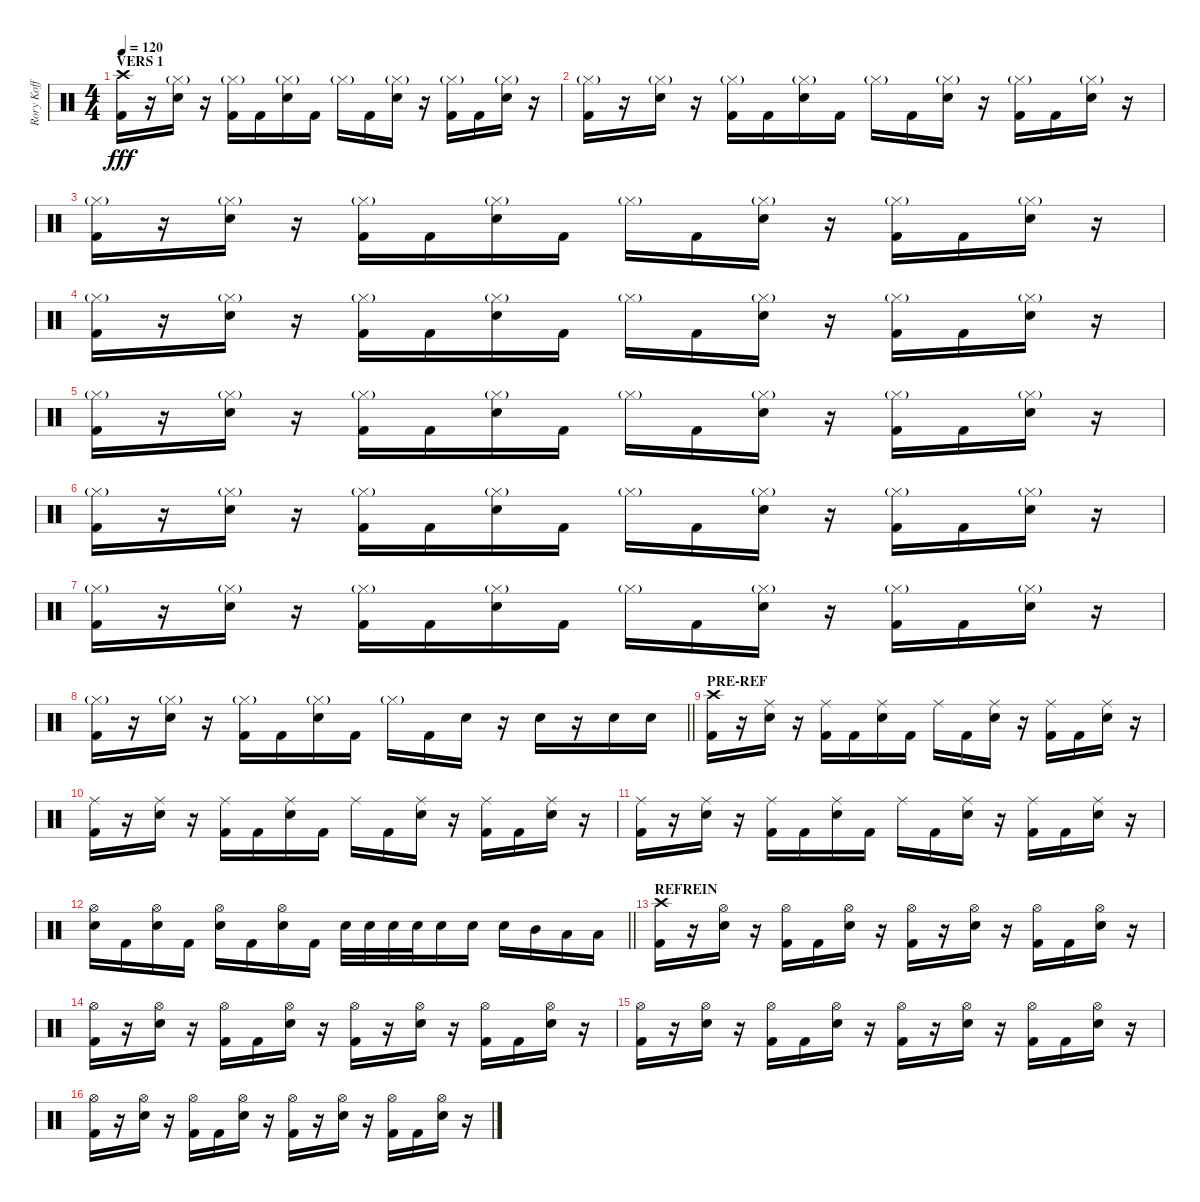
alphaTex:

\track ("Rory Koff" "Rory Koff") {instrument percussion}
\staff {score}
\articulation defaults
\ts (4 4)
\section ("" "VERS 1")
\tempo 120
\clef neutral
\ks c
("Crash high (hit)" "Kick (hit) 2").16{dy fff} r.16 ("Hi-Hat (closed)"{g} "Snare (hit) 2").16 r.16 ("Hi-Hat (closed)"{g} "Kick (hit) 2").16 "Kick (hit) 2".16 ("Hi-Hat (closed)"{g} "Snare (hit) 2").16 "Kick (hit) 2".16 "Hi-Hat (closed)"{g}.16 "Kick (hit) 2".16 ("Hi-Hat (closed)"{g} "Snare (hit) 2").16 r.16 ("Hi-Hat (closed)"{g} "Kick (hit) 2").16 "Kick (hit) 2".16 ("Hi-Hat (closed)"{g} "Snare (hit) 2").16 r.16 |
("Hi-Hat (closed)"{g} "Kick (hit) 2").16 r.16 ("Hi-Hat (closed)"{g} "Snare (hit) 2").16 r.16 ("Hi-Hat (closed)"{g} "Kick (hit) 2").16 "Kick (hit) 2".16 ("Hi-Hat (closed)"{g} "Snare (hit) 2").16 "Kick (hit) 2".16 "Hi-Hat (closed)"{g}.16 "Kick (hit) 2".16 ("Hi-Hat (closed)"{g} "Snare (hit) 2").16 r.16 ("Hi-Hat (closed)"{g} "Kick (hit) 2").16 "Kick (hit) 2".16 ("Hi-Hat (closed)"{g} "Snare (hit) 2").16 r.16 |
("Hi-Hat (closed)"{g} "Kick (hit) 2").16 r.16 ("Hi-Hat (closed)"{g} "Snare (hit) 2").16 r.16 ("Hi-Hat (closed)"{g} "Kick (hit) 2").16 "Kick (hit) 2".16 ("Hi-Hat (closed)"{g} "Snare (hit) 2").16 "Kick (hit) 2".16 "Hi-Hat (closed)"{g}.16 "Kick (hit) 2".16 ("Hi-Hat (closed)"{g} "Snare (hit) 2").16 r.16 ("Hi-Hat (closed)"{g} "Kick (hit) 2").16 "Kick (hit) 2".16 ("Hi-Hat (closed)"{g} "Snare (hit) 2").16 r.16 |
("Hi-Hat (closed)"{g} "Kick (hit) 2").16 r.16 ("Hi-Hat (closed)"{g} "Snare (hit) 2").16 r.16 ("Hi-Hat (closed)"{g} "Kick (hit) 2").16 "Kick (hit) 2".16 ("Hi-Hat (closed)"{g} "Snare (hit) 2").16 "Kick (hit) 2".16 "Hi-Hat (closed)"{g}.16 "Kick (hit) 2".16 ("Hi-Hat (closed)"{g} "Snare (hit) 2").16 r.16 ("Hi-Hat (closed)"{g} "Kick (hit) 2").16 "Kick (hit) 2".16 ("Hi-Hat (closed)"{g} "Snare (hit) 2").16 r.16 |
("Hi-Hat (closed)"{g} "Kick (hit) 2").16 r.16 ("Hi-Hat (closed)"{g} "Snare (hit) 2").16 r.16 ("Hi-Hat (closed)"{g} "Kick (hit) 2").16 "Kick (hit) 2".16 ("Hi-Hat (closed)"{g} "Snare (hit) 2").16 "Kick (hit) 2".16 "Hi-Hat (closed)"{g}.16 "Kick (hit) 2".16 ("Hi-Hat (closed)"{g} "Snare (hit) 2").16 r.16 ("Hi-Hat (closed)"{g} "Kick (hit) 2").16 "Kick (hit) 2".16 ("Hi-Hat (closed)"{g} "Snare (hit) 2").16 r.16 |
("Hi-Hat (closed)"{g} "Kick (hit) 2").16 r.16 ("Hi-Hat (closed)"{g} "Snare (hit) 2").16 r.16 ("Hi-Hat (closed)"{g} "Kick (hit) 2").16 "Kick (hit) 2".16 ("Hi-Hat (closed)"{g} "Snare (hit) 2").16 "Kick (hit) 2".16 "Hi-Hat (closed)"{g}.16 "Kick (hit) 2".16 ("Hi-Hat (closed)"{g} "Snare (hit) 2").16 r.16 ("Hi-Hat (closed)"{g} "Kick (hit) 2").16 "Kick (hit) 2".16 ("Hi-Hat (closed)"{g} "Snare (hit) 2").16 r.16 |
("Hi-Hat (closed)"{g} "Kick (hit) 2").16 r.16 ("Hi-Hat (closed)"{g} "Snare (hit) 2").16 r.16 ("Hi-Hat (closed)"{g} "Kick (hit) 2").16 "Kick (hit) 2".16 ("Hi-Hat (closed)"{g} "Snare (hit) 2").16 "Kick (hit) 2".16 "Hi-Hat (closed)"{g}.16 "Kick (hit) 2".16 ("Hi-Hat (closed)"{g} "Snare (hit) 2").16 r.16 ("Hi-Hat (closed)"{g} "Kick (hit) 2").16 "Kick (hit) 2".16 ("Hi-Hat (closed)"{g} "Snare (hit) 2").16 r.16 |
\barLineRight lightlight
("Hi-Hat (closed)"{g} "Kick (hit) 2").16 r.16 ("Hi-Hat (closed)"{g} "Snare (hit) 2").16 r.16 ("Hi-Hat (closed)"{g} "Kick (hit) 2").16 "Kick (hit) 2".16 ("Hi-Hat (closed)"{g} "Snare (hit) 2").16 "Kick (hit) 2".16 "Hi-Hat (closed)"{g}.16 "Kick (hit) 2".16 "Snare (hit) 2".16 r.16 "Snare (hit) 2".16 r.16 "Snare (hit) 2".16 "Snare (hit) 2".16 |
\section ("" "PRE-REF")
("Crash high (hit)" "Kick (hit) 2").16 r.16 ("Ride (middle)" "Snare (hit) 2").16 r.16 ("Ride (middle)" "Kick (hit) 2").16 "Kick (hit) 2".16 ("Ride (middle)" "Snare (hit) 2").16 "Kick (hit) 2".16 "Ride (middle)".16 "Kick (hit) 2".16 ("Ride (middle)" "Snare (hit) 2").16 r.16 ("Ride (middle)" "Kick (hit) 2").16 "Kick (hit) 2".16 ("Ride (middle)" "Snare (hit) 2").16 r.16 |
("Ride (middle)" "Kick (hit) 2").16 r.16 ("Ride (middle)" "Snare (hit) 2").16 r.16 ("Ride (middle)" "Kick (hit) 2").16 "Kick (hit) 2".16 ("Ride (middle)" "Snare (hit) 2").16 "Kick (hit) 2".16 "Ride (middle)".16 "Kick (hit) 2".16 ("Ride (middle)" "Snare (hit) 2").16 r.16 ("Ride (middle)" "Kick (hit) 2").16 "Kick (hit) 2".16 ("Ride (middle)" "Snare (hit) 2").16 r.16 |
("Ride (middle)" "Kick (hit) 2").16 r.16 ("Ride (middle)" "Snare (hit) 2").16 r.16 ("Ride (middle)" "Kick (hit) 2").16 "Kick (hit) 2".16 ("Ride (middle)" "Snare (hit) 2").16 "Kick (hit) 2".16 "Ride (middle)".16 "Kick (hit) 2".16 ("Ride (middle)" "Snare (hit) 2").16 r.16 ("Ride (middle)" "Kick (hit) 2").16 "Kick (hit) 2".16 ("Ride (middle)" "Snare (hit) 2").16 r.16 |
\barLineRight lightlight
("Hi-Hat (open)" "Snare (hit) 2").16 "Kick (hit) 2".16 ("Hi-Hat (open)" "Snare (hit) 2").16 "Kick (hit) 2".16 ("Hi-Hat (open)" "Snare (hit) 2").16 "Kick (hit) 2".16 ("Hi-Hat (open)" "Snare (hit) 2").16 "Kick (hit) 2".16 "Snare (hit) 2".32 "Snare (hit) 2".32 "Snare (hit) 2".32 "Snare (hit) 2".32 "Snare (hit) 2".16 "Snare (hit) 2".16 "Snare (hit) 2".16 "Mid Tom (hit)".16 "Low Tom (hit)".16 "Low Floor Tom (hit)".16 |
\section ("" "REFREIN")
("Crash high (hit)" "Kick (hit) 2").16 r.16 ("Hi-Hat (open)" "Snare (hit) 2").16 r.16 ("Hi-Hat (open)" "Kick (hit) 2").16 "Kick (hit) 2".16 ("Hi-Hat (open)" "Snare (hit) 2").16 r.16 ("Hi-Hat (open)" "Kick (hit) 2").16 r.16 ("Hi-Hat (open)" "Snare (hit) 2").16 r.16 ("Hi-Hat (open)" "Kick (hit) 2").16 "Kick (hit) 2".16 ("Hi-Hat (open)" "Snare (hit) 2").16 r.16 |
("Hi-Hat (open)" "Kick (hit) 2").16 r.16 ("Hi-Hat (open)" "Snare (hit) 2").16 r.16 ("Hi-Hat (open)" "Kick (hit) 2").16 "Kick (hit) 2".16 ("Hi-Hat (open)" "Snare (hit) 2").16 r.16 ("Hi-Hat (open)" "Kick (hit) 2").16 r.16 ("Hi-Hat (open)" "Snare (hit) 2").16 r.16 ("Hi-Hat (open)" "Kick (hit) 2").16 "Kick (hit) 2".16 ("Hi-Hat (open)" "Snare (hit) 2").16 r.16 |
("Hi-Hat (open)" "Kick (hit) 2").16 r.16 ("Hi-Hat (open)" "Snare (hit) 2").16 r.16 ("Hi-Hat (open)" "Kick (hit) 2").16 "Kick (hit) 2".16 ("Hi-Hat (open)" "Snare (hit) 2").16 r.16 ("Hi-Hat (open)" "Kick (hit) 2").16 r.16 ("Hi-Hat (open)" "Snare (hit) 2").16 r.16 ("Hi-Hat (open)" "Kick (hit) 2").16 "Kick (hit) 2".16 ("Hi-Hat (open)" "Snare (hit) 2").16 r.16 |
("Hi-Hat (open)" "Kick (hit) 2").16 r.16 ("Hi-Hat (open)" "Snare (hit) 2").16 r.16 ("Hi-Hat (open)" "Kick (hit) 2").16 "Kick (hit) 2".16 ("Hi-Hat (open)" "Snare (hit) 2").16 r.16 ("Hi-Hat (open)" "Kick (hit) 2").16 r.16 ("Hi-Hat (open)" "Snare (hit) 2").16 r.16 ("Hi-Hat (open)" "Kick (hit) 2").16 "Kick (hit) 2".16 ("Hi-Hat (open)" "Snare (hit) 2").16 r.16
